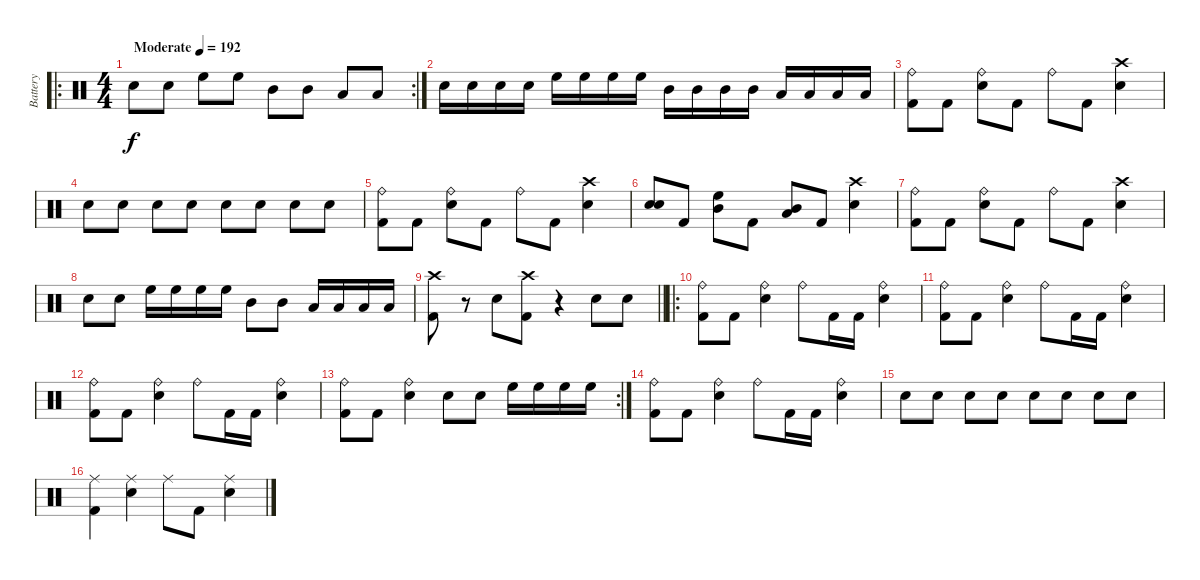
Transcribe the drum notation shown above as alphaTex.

\track ("Battery" "Battery") {instrument percussion}
\staff {score}
\articulation defaults
\ro
\rc 2
\ts (4 4)
\tempo (192 "Moderate")
\clef neutral
\ks c "Snare (hit) 2".8{dy f} "Snare (hit) 2".8 "High Floor Tom (hit)".8 "High Floor Tom (hit)".8 "Mid Tom (hit)".8 "Mid Tom (hit)".8 "Low Tom (hit)".8 "Low Tom (hit)".8
|
"Snare (hit) 2".16 "Snare (hit) 2".16 "Snare (hit) 2".16 "Snare (hit) 2".16 "High Floor Tom (hit)".16 "High Floor Tom (hit)".16 "High Floor Tom (hit)".16 "High Floor Tom (hit)".16 "Mid Tom (hit)".16 "Mid Tom (hit)".16 "Mid Tom (hit)".16 "Mid Tom (hit)".16 "Low Tom (hit)".16 "Low Tom (hit)".16 "Low Tom (hit)".16 "Low Tom (hit)".16 |
("Ride (bell)" "Kick (hit) 2").8 "Kick (hit) 2".8 ("Ride (bell)" "Snare (hit) 2").8 "Kick (hit) 2".8 "Ride (bell)".8 "Kick (hit) 2".8 ("Crash high (hit)" "Snare (hit) 2").4 |
"Snare (hit) 2".8 "Snare (hit) 2".8 "Snare (hit) 2".8 "Snare (hit) 2".8 "Snare (hit) 2".8 "Snare (hit) 2".8 "Snare (hit) 2".8 "Snare (hit) 2".8 |
("Ride (bell)" "Kick (hit) 2").8 "Kick (hit) 2".8 ("Ride (bell)" "Snare (hit) 2").8 "Kick (hit) 2".8 "Ride (bell)".8 "Kick (hit) 2".8 ("Crash high (hit)" "Snare (hit) 2").4 |
("Snare (hit) 2" "Snare (hit) 2").8 "Kick (hit) 2".8 ("High Floor Tom (hit)" "Mid Tom (hit)").8 "Kick (hit) 2".8 ("Mid Tom (hit)" "Low Tom (hit)").8 "Kick (hit) 2".8 ("Crash high (hit)" "Snare (hit) 2").4 |
("Ride (bell)" "Kick (hit) 2").8 "Kick (hit) 2".8 ("Ride (bell)" "Snare (hit) 2").8 "Kick (hit) 2".8 "Ride (bell)".8 "Kick (hit) 2".8 ("Crash high (hit)" "Snare (hit) 2").4 |
"Snare (hit) 2".8 "Snare (hit) 2".8 "High Floor Tom (hit)".16 "High Floor Tom (hit)".16 "High Floor Tom (hit)".16 "High Floor Tom (hit)".16 "Mid Tom (hit)".8 "Mid Tom (hit)".8 "Low Tom (hit)".16 "Low Tom (hit)".16 "Low Tom (hit)".16 "Low Tom (hit)".16 |
\barLineRight lightlight
("Crash high (hit)" "Kick (hit) 2").8 r.8 "Snare (hit) 2".8 ("Crash high (hit)" "Kick (hit) 2").8 r.4 "Snare (hit) 2".8 "Snare (hit) 2".8 |
\ro
("Ride (bell)" "Kick (hit) 2").8 "Kick (hit) 2".8 ("Ride (bell)" "Snare (hit) 2").4 "Ride (bell)".8 "Kick (hit) 2".16 "Kick (hit) 2".16 ("Ride (bell)" "Snare (hit) 2").4 |
("Ride (bell)" "Kick (hit) 2").8 "Kick (hit) 2".8 ("Ride (bell)" "Snare (hit) 2").4 "Ride (bell)".8 "Kick (hit) 2".16 "Kick (hit) 2".16 ("Ride (bell)" "Snare (hit) 2").4 |
("Ride (bell)" "Kick (hit) 2").8 "Kick (hit) 2".8 ("Ride (bell)" "Snare (hit) 2").4 "Ride (bell)".8 "Kick (hit) 2".16 "Kick (hit) 2".16 ("Ride (bell)" "Snare (hit) 2").4 |
\rc 2
("Ride (bell)" "Kick (hit) 2").8 "Kick (hit) 2".8 ("Ride (bell)" "Snare (hit) 2").4 "Snare (hit) 2".8 "Snare (hit) 2".8 "High Floor Tom (hit)".16 "High Floor Tom (hit)".16 "High Floor Tom (hit)".16 "High Floor Tom (hit)".16 |
("Ride (bell)" "Kick (hit) 2").8 "Kick (hit) 2".8 ("Ride (bell)" "Snare (hit) 2").4 "Ride (bell)".8 "Kick (hit) 2".16 "Kick (hit) 2".16 ("Ride (bell)" "Snare (hit) 2").4 |
"Snare (hit) 2".8 "Snare (hit) 2".8 "Snare (hit) 2".8 "Snare (hit) 2".8 "Snare (hit) 2".8 "Snare (hit) 2".8 "Snare (hit) 2".8 "Snare (hit) 2".8 |
("Ride (middle)" "Kick (hit) 2").4 ("Ride (middle)" "Snare (hit) 2").4 "Ride (middle)".8 "Kick (hit) 2".8 ("Ride (middle)" "Snare (hit) 2").4
